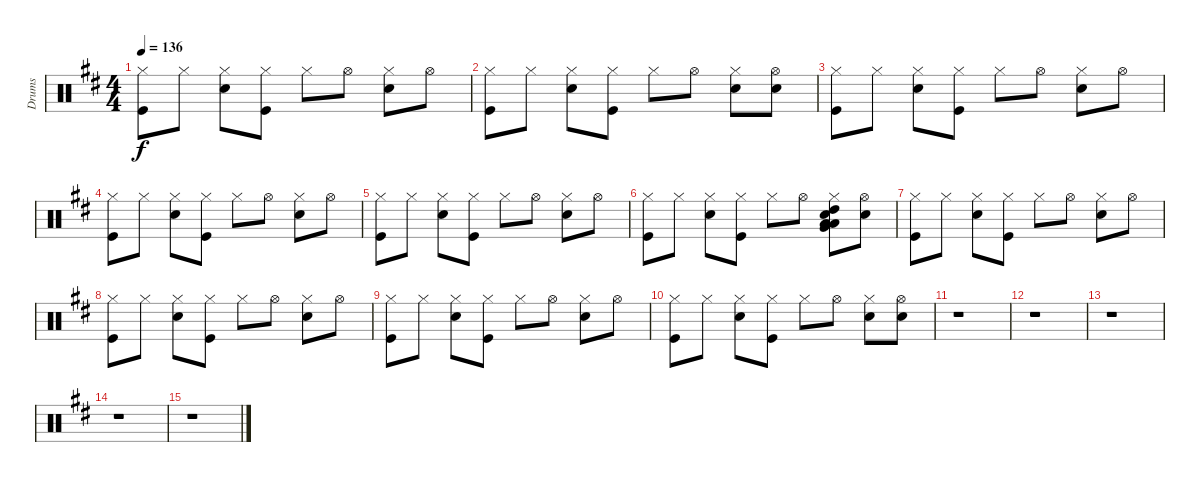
\track ("Drums" "Drums") {instrument percussion}
\staff {score}
\articulation defaults
\ts (4 4)
\tempo 136
\clef neutral
\ks bminor
("Kick (hit)" "Hi-Hat (closed)").8{dy f} "Hi-Hat (closed)".8 ("Snare (hit) 2" "Hi-Hat (closed)").8 ("Kick (hit)" "Hi-Hat (closed)").8 "Hi-Hat (closed)".8 "Hi-Hat (open)".8 ("Snare (hit) 2" "Hi-Hat (closed)").8 "Hi-Hat (open)".8 |
("Kick (hit)" "Hi-Hat (closed)").8 "Hi-Hat (closed)".8 ("Snare (hit) 2" "Hi-Hat (closed)").8 ("Kick (hit)" "Hi-Hat (closed)").8 "Hi-Hat (closed)".8 "Hi-Hat (open)".8 ("Snare (hit) 2" "Hi-Hat (closed)").8 ("Snare (hit) 2" "Hi-Hat (open)").8 |
("Kick (hit)" "Hi-Hat (closed)").8 "Hi-Hat (closed)".8 ("Snare (hit) 2" "Hi-Hat (closed)").8 ("Kick (hit)" "Hi-Hat (closed)").8 "Hi-Hat (closed)".8 "Hi-Hat (open)".8 ("Snare (hit) 2" "Hi-Hat (closed)").8 "Hi-Hat (open)".8 |
("Kick (hit)" "Hi-Hat (closed)").8 "Hi-Hat (closed)".8 ("Snare (hit) 2" "Hi-Hat (closed)").8 ("Kick (hit)" "Hi-Hat (closed)").8 "Hi-Hat (closed)".8 "Hi-Hat (open)".8 ("Snare (hit) 2" "Hi-Hat (closed)").8 "Hi-Hat (open)".8 |
("Kick (hit)" "Hi-Hat (closed)").8 "Hi-Hat (closed)".8 ("Snare (hit) 2" "Hi-Hat (closed)").8 ("Kick (hit)" "Hi-Hat (closed)").8 "Hi-Hat (closed)".8 "Hi-Hat (open)".8 ("Snare (hit) 2" "Hi-Hat (closed)").8 "Hi-Hat (open)".8 |
("Kick (hit)" "Hi-Hat (closed)").8 "Hi-Hat (closed)".8 ("Snare (hit) 2" "Hi-Hat (closed)").8 ("Kick (hit)" "Hi-Hat (closed)").8 "Hi-Hat (closed)".8 "Hi-Hat (open)".8 ("High Tom (hit)" "Low Tom (hit)" "Very Low Tom (hit)" "Low Floor Tom (hit)" "Snare (hit) 2" "Hi-Hat (closed)").8 ("Snare (hit) 2" "Hi-Hat (open)").8 |
("Kick (hit)" "Hi-Hat (closed)").8 "Hi-Hat (closed)".8 ("Snare (hit) 2" "Hi-Hat (closed)").8 ("Kick (hit)" "Hi-Hat (closed)").8 "Hi-Hat (closed)".8 "Hi-Hat (open)".8 ("Snare (hit) 2" "Hi-Hat (closed)").8 "Hi-Hat (open)".8 |
("Kick (hit)" "Hi-Hat (closed)").8 "Hi-Hat (closed)".8 ("Snare (hit) 2" "Hi-Hat (closed)").8 ("Kick (hit)" "Hi-Hat (closed)").8 "Hi-Hat (closed)".8 "Hi-Hat (open)".8 ("Snare (hit) 2" "Hi-Hat (closed)").8 "Hi-Hat (open)".8 |
("Kick (hit)" "Hi-Hat (closed)").8 "Hi-Hat (closed)".8 ("Snare (hit) 2" "Hi-Hat (closed)").8 ("Kick (hit)" "Hi-Hat (closed)").8 "Hi-Hat (closed)".8 "Hi-Hat (open)".8 ("Snare (hit) 2" "Hi-Hat (closed)").8 "Hi-Hat (open)".8 |
("Kick (hit)" "Hi-Hat (closed)").8 "Hi-Hat (closed)".8 ("Snare (hit) 2" "Hi-Hat (closed)").8 ("Kick (hit)" "Hi-Hat (closed)").8 "Hi-Hat (closed)".8 "Hi-Hat (open)".8 ("Snare (hit) 2" "Hi-Hat (closed)").8 ("Snare (hit) 2" "Hi-Hat (open)").8 |
r.1 |
r.1 |
r.1 |
r.1 |
r.1
